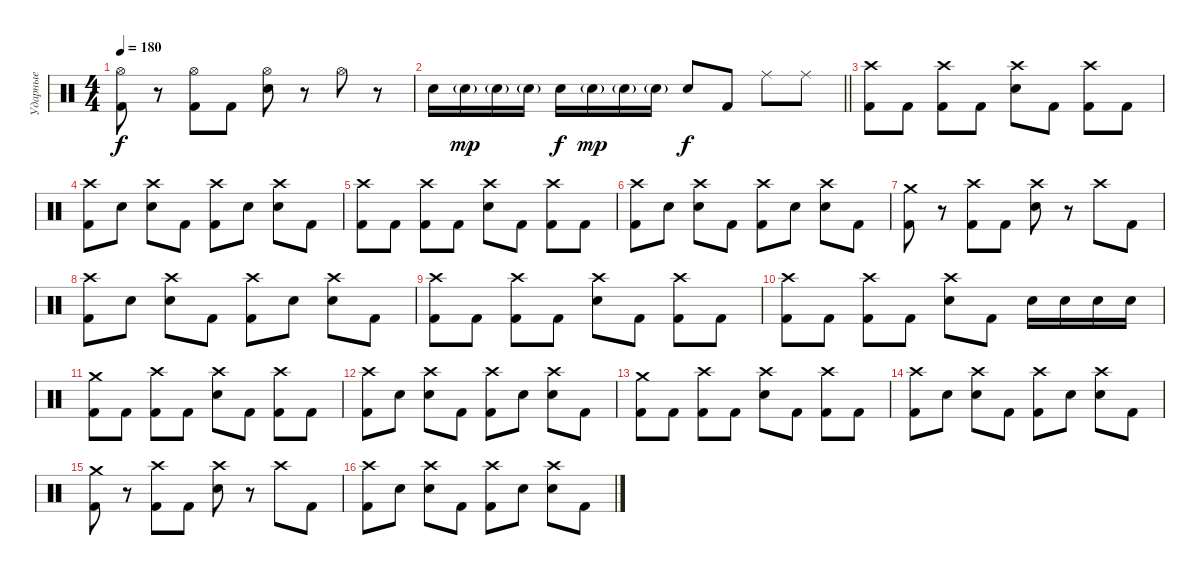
\track ("Ударные" "Ударные") {instrument percussion}
\staff {score}
\articulation defaults
\ts (4 4)
\tempo 180
\clef neutral
\ks c
("Hi-Hat (open)" "Kick (hit) 2").8{dy f} r.8 ("Hi-Hat (open)" "Kick (hit) 2").8 "Kick (hit) 2".8 ("Hi-Hat (open)" "Electric Snare (hit)").8 r.8 "Hi-Hat (open)".8 r.8 |
\barLineRight lightlight "Electric Snare (hit)".16 "Electric Snare (hit)"{g}.16{dy mp} "Electric Snare (hit)"{g}.16 "Electric Snare (hit)"{g}.16 "Electric Snare (hit)".16{dy f} "Electric Snare (hit)"{g}.16{dy mp} "Electric Snare (hit)"{g}.16 "Electric Snare (hit)"{g}.16 "Electric Snare (hit)".8{dy f} "Kick (hit) 2".8 "Ride (middle)".8 "Ride (middle)".8
|
\section ("" "")
("Crash high (hit)" "Kick (hit) 2").8 "Kick (hit) 2".8 ("Crash high (hit)" "Kick (hit) 2").8 "Kick (hit) 2".8 ("Crash high (hit)" "Electric Snare (hit)").8 "Kick (hit) 2".8 ("Crash high (hit)" "Kick (hit) 2").8 "Kick (hit) 2".8 |
("Crash high (hit)" "Kick (hit) 2").8 "Electric Snare (hit)".8 ("Crash high (hit)" "Electric Snare (hit)").8 "Kick (hit) 2".8 ("Crash high (hit)" "Kick (hit) 2").8 "Electric Snare (hit)".8 ("Crash high (hit)" "Electric Snare (hit)").8 "Kick (hit) 2".8 |
("Crash high (hit)" "Kick (hit) 2").8 "Kick (hit) 2".8 ("Crash high (hit)" "Kick (hit) 2").8 "Kick (hit) 2".8 ("Crash high (hit)" "Electric Snare (hit)").8 "Kick (hit) 2".8 ("Crash high (hit)" "Kick (hit) 2").8 "Kick (hit) 2".8 |
("Crash high (hit)" "Kick (hit) 2").8 "Electric Snare (hit)".8 ("Crash high (hit)" "Electric Snare (hit)").8 "Kick (hit) 2".8 ("Crash high (hit)" "Kick (hit) 2").8 "Electric Snare (hit)".8 ("Crash high (hit)" "Electric Snare (hit)").8 "Kick (hit) 2".8 |
("Crash medium (hit)" "Kick (hit) 2").8 r.8 ("Crash high (hit)" "Kick (hit) 2").8 "Kick (hit) 2".8 ("Crash high (hit)" "Electric Snare (hit)").8 r.8 "Crash high (hit)".8 "Kick (hit) 2".8 |
("Crash high (hit)" "Kick (hit) 2").8 "Electric Snare (hit)".8 ("Crash high (hit)" "Electric Snare (hit)").8 "Kick (hit) 2".8 ("Crash high (hit)" "Kick (hit) 2").8 "Electric Snare (hit)".8 ("Crash high (hit)" "Electric Snare (hit)").8 "Kick (hit) 2".8 |
("Crash high (hit)" "Kick (hit) 2").8 "Kick (hit) 2".8 ("Crash high (hit)" "Kick (hit) 2").8 "Kick (hit) 2".8 ("Crash high (hit)" "Electric Snare (hit)").8 "Kick (hit) 2".8 ("Crash high (hit)" "Kick (hit) 2").8 "Kick (hit) 2".8 |
("Crash high (hit)" "Kick (hit) 2").8 "Kick (hit) 2".8 ("Crash high (hit)" "Kick (hit) 2").8 "Kick (hit) 2".8 ("Crash high (hit)" "Electric Snare (hit)").8 "Kick (hit) 2".8 "Electric Snare (hit)".16 "Electric Snare (hit)".16 "Electric Snare (hit)".16 "Electric Snare (hit)".16 |
("Crash medium (hit)" "Kick (hit) 2").8 "Kick (hit) 2".8 ("Crash high (hit)" "Kick (hit) 2").8 "Kick (hit) 2".8 ("Crash high (hit)" "Electric Snare (hit)").8 "Kick (hit) 2".8 ("Crash high (hit)" "Kick (hit) 2").8 "Kick (hit) 2".8 |
("Crash high (hit)" "Kick (hit) 2").8 "Electric Snare (hit)".8 ("Crash high (hit)" "Electric Snare (hit)").8 "Kick (hit) 2".8 ("Crash high (hit)" "Kick (hit) 2").8 "Electric Snare (hit)".8 ("Crash high (hit)" "Electric Snare (hit)").8 "Kick (hit) 2".8 |
("Crash medium (hit)" "Kick (hit) 2").8 "Kick (hit) 2".8 ("Crash high (hit)" "Kick (hit) 2").8 "Kick (hit) 2".8 ("Crash high (hit)" "Electric Snare (hit)").8 "Kick (hit) 2".8 ("Crash high (hit)" "Kick (hit) 2").8 "Kick (hit) 2".8 |
("Crash high (hit)" "Kick (hit) 2").8 "Electric Snare (hit)".8 ("Crash high (hit)" "Electric Snare (hit)").8 "Kick (hit) 2".8 ("Crash high (hit)" "Kick (hit) 2").8 "Electric Snare (hit)".8 ("Crash high (hit)" "Electric Snare (hit)").8 "Kick (hit) 2".8 |
("Crash medium (hit)" "Kick (hit) 2").8 r.8 ("Crash high (hit)" "Kick (hit) 2").8 "Kick (hit) 2".8 ("Crash high (hit)" "Electric Snare (hit)").8 r.8 "Crash high (hit)".8 "Kick (hit) 2".8 |
("Crash high (hit)" "Kick (hit) 2").8 "Electric Snare (hit)".8 ("Crash high (hit)" "Electric Snare (hit)").8 "Kick (hit) 2".8 ("Crash high (hit)" "Kick (hit) 2").8 "Electric Snare (hit)".8 ("Crash high (hit)" "Electric Snare (hit)").8 "Kick (hit) 2".8
